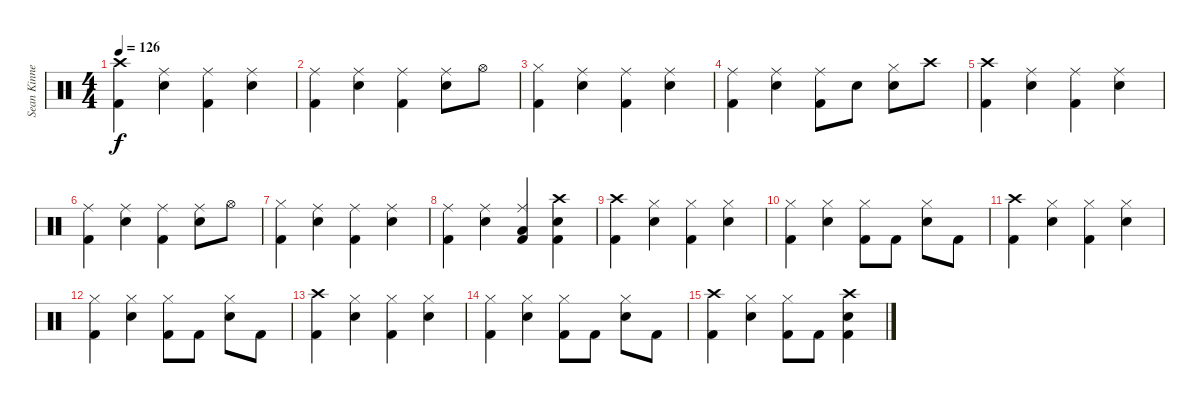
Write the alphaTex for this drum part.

\track ("Sean Kinney - Drums" "Sean Kinne") {instrument percussion}
\staff {score}
\articulation defaults
\ts (4 4)
\tempo 126
\clef neutral
\ks c
("Crash high (hit)" "Kick (hit) 2").4{dy f} ("Ride (middle)" "Electric Snare (hit)").4 ("Ride (middle)" "Kick (hit) 2").4 ("Ride (middle)" "Electric Snare (hit)").4 |
("Ride (middle)" "Kick (hit) 2").4 ("Ride (middle)" "Electric Snare (hit)").4 ("Ride (middle)" "Kick (hit) 2").4 ("Ride (middle)" "Electric Snare (hit)").8 "Hi-Hat (open)".8 |
("Hi-Hat (closed)" "Kick (hit) 2").4 ("Ride (middle)" "Electric Snare (hit)").4 ("Ride (middle)" "Kick (hit) 2").4 ("Ride (middle)" "Electric Snare (hit)").4 |
("Ride (middle)" "Kick (hit) 2").4 ("Ride (middle)" "Electric Snare (hit)").4 ("Ride (middle)" "Kick (hit) 2").8 "Electric Snare (hit)".8 ("Hi-Hat (closed)" "Electric Snare (hit)").8 "Crash high (hit)".8 |
("Crash high (hit)" "Kick (hit) 2").4 ("Ride (middle)" "Electric Snare (hit)").4 ("Ride (middle)" "Kick (hit) 2").4 ("Ride (middle)" "Electric Snare (hit)").4 |
("Ride (middle)" "Kick (hit) 2").4 ("Ride (middle)" "Electric Snare (hit)").4 ("Ride (middle)" "Kick (hit) 2").4 ("Ride (middle)" "Electric Snare (hit)").8 "Hi-Hat (open)".8 |
("Hi-Hat (closed)" "Kick (hit) 2").4 ("Ride (middle)" "Electric Snare (hit)").4 ("Ride (middle)" "Kick (hit) 2").4 ("Ride (middle)" "Electric Snare (hit)").4 |
("Ride (middle)" "Kick (hit) 2").4 ("Ride (middle)" "Electric Snare (hit)").4 ("Ride (middle)" "Low Tom (hit)" "Kick (hit) 2").4 ("Crash high (hit)" "Electric Snare (hit)" "Kick (hit) 2").4 |
("Crash high (hit)" "Kick (hit) 2").4 ("Hi-Hat (closed)" "Electric Snare (hit)").4 ("Hi-Hat (closed)" "Kick (hit) 2").4 ("Hi-Hat (closed)" "Electric Snare (hit)").4 |
("Hi-Hat (closed)" "Kick (hit) 2").4 ("Hi-Hat (closed)" "Electric Snare (hit)").4 ("Hi-Hat (closed)" "Kick (hit) 2").8 "Kick (hit) 2".8 ("Hi-Hat (closed)" "Electric Snare (hit)").8 "Kick (hit) 2".8 |
("Crash high (hit)" "Kick (hit) 2").4 ("Hi-Hat (closed)" "Electric Snare (hit)").4 ("Hi-Hat (closed)" "Kick (hit) 2").4 ("Hi-Hat (closed)" "Electric Snare (hit)").4 |
("Hi-Hat (closed)" "Kick (hit) 2").4 ("Hi-Hat (closed)" "Electric Snare (hit)").4 ("Hi-Hat (closed)" "Kick (hit) 2").8 "Kick (hit) 2".8 ("Hi-Hat (closed)" "Electric Snare (hit)").8 "Kick (hit) 2".8 |
("Crash high (hit)" "Kick (hit) 2").4 ("Hi-Hat (closed)" "Electric Snare (hit)").4 ("Hi-Hat (closed)" "Kick (hit) 2").4 ("Hi-Hat (closed)" "Electric Snare (hit)").4 |
("Hi-Hat (closed)" "Kick (hit) 2").4 ("Hi-Hat (closed)" "Electric Snare (hit)").4 ("Hi-Hat (closed)" "Kick (hit) 2").8 "Kick (hit) 2".8 ("Hi-Hat (closed)" "Electric Snare (hit)").8 "Kick (hit) 2".8 |
("Crash high (hit)" "Kick (hit) 2").4 ("Hi-Hat (closed)" "Electric Snare (hit)").4 ("Hi-Hat (closed)" "Kick (hit) 2").8 "Kick (hit) 2".8 ("Crash high (hit)" "Electric Snare (hit)" "Kick (hit) 2").4
